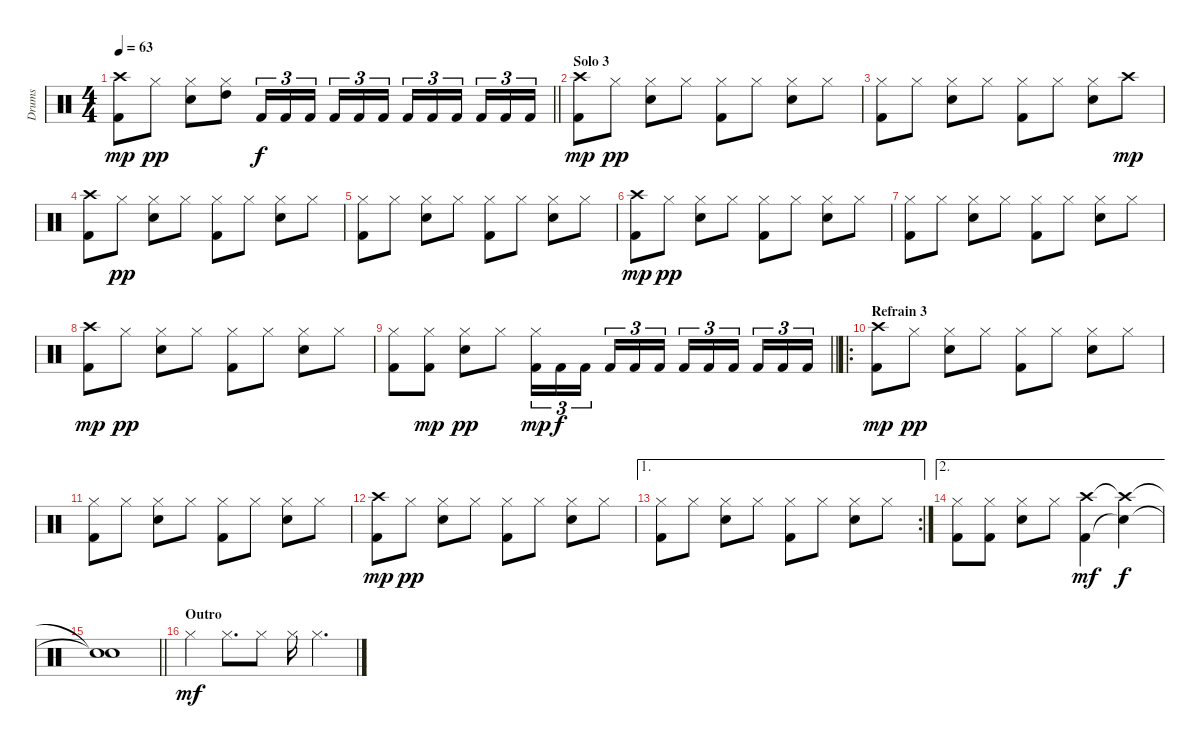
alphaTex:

\track ("Drums" "Drums") {instrument percussion}
\staff {score}
\articulation defaults
\ts (4 4)
\tempo 63
\clef neutral
\barLineRight lightlight
\ks c
("Crash high (hit)" "Kick (hit) 2").8{dy mp} "Hi-Hat (closed)".8{dy pp} ("Hi-Hat (closed)" "Electric Snare (hit)").8 ("Hi-Hat (closed)" "High Tom (hit)").8 "Kick (hit) 2".16{tu (3 2) dy f} "Kick (hit) 2".16{tu (3 2)} "Kick (hit) 2".16{tu (3 2) beam splitsecondary} "Kick (hit) 2".16{tu (3 2)} "Kick (hit) 2".16{tu (3 2)} "Kick (hit) 2".16{tu (3 2)} "Kick (hit) 2".16{tu (3 2)} "Kick (hit) 2".16{tu (3 2)} "Kick (hit) 2".16{tu (3 2) beam splitsecondary} "Kick (hit) 2".16{tu (3 2)} "Kick (hit) 2".16{tu (3 2)} "Kick (hit) 2".16{tu (3 2)} |
\section ("" "Solo 3")
("Crash high (hit)" "Kick (hit) 2").8{dy mp} "Hi-Hat (closed)".8{dy pp} ("Hi-Hat (closed)" "Snare (hit) 2").8 "Hi-Hat (closed)".8 ("Hi-Hat (closed)" "Kick (hit) 2").8 "Hi-Hat (closed)".8 ("Hi-Hat (closed)" "Snare (hit) 2").8 "Hi-Hat (closed)".8 |
("Hi-Hat (closed)" "Kick (hit) 2").8 "Hi-Hat (closed)".8 ("Hi-Hat (closed)" "Snare (hit) 2").8 "Hi-Hat (closed)".8 ("Hi-Hat (closed)" "Kick (hit) 2").8 "Hi-Hat (closed)".8 ("Hi-Hat (closed)" "Snare (hit) 2").8 "Crash high (hit)".8{dy mp} |
("Crash high (hit)" "Kick (hit) 2").8 "Hi-Hat (closed)".8{dy pp} ("Hi-Hat (closed)" "Snare (hit) 2").8 "Hi-Hat (closed)".8 ("Hi-Hat (closed)" "Kick (hit) 2").8 "Hi-Hat (closed)".8 ("Hi-Hat (closed)" "Snare (hit) 2").8 "Hi-Hat (closed)".8 |
("Hi-Hat (closed)" "Kick (hit) 2").8 "Hi-Hat (closed)".8 ("Hi-Hat (closed)" "Snare (hit) 2").8 "Hi-Hat (closed)".8 ("Hi-Hat (closed)" "Kick (hit) 2").8 "Hi-Hat (closed)".8 ("Hi-Hat (closed)" "Snare (hit) 2").8 "Hi-Hat (closed)".8 |
("Crash high (hit)" "Kick (hit) 2").8{dy mp} "Hi-Hat (closed)".8{dy pp} ("Hi-Hat (closed)" "Snare (hit) 2").8 "Hi-Hat (closed)".8 ("Hi-Hat (closed)" "Kick (hit) 2").8 "Hi-Hat (closed)".8 ("Hi-Hat (closed)" "Snare (hit) 2").8 "Hi-Hat (closed)".8 |
("Hi-Hat (closed)" "Kick (hit) 2").8 "Hi-Hat (closed)".8 ("Hi-Hat (closed)" "Snare (hit) 2").8 "Hi-Hat (closed)".8 ("Hi-Hat (closed)" "Kick (hit) 2").8 "Hi-Hat (closed)".8 ("Hi-Hat (closed)" "Snare (hit) 2").8 "Hi-Hat (closed)".8 |
("Crash high (hit)" "Kick (hit) 2").8{dy mp} "Hi-Hat (closed)".8{dy pp} ("Hi-Hat (closed)" "Snare (hit) 2").8 "Hi-Hat (closed)".8 ("Hi-Hat (closed)" "Kick (hit) 2").8 "Hi-Hat (closed)".8 ("Hi-Hat (closed)" "Snare (hit) 2").8 "Hi-Hat (closed)".8 |
\barLineRight lightlight
("Hi-Hat (closed)" "Kick (hit) 2").8 ("Hi-Hat (closed)" "Kick (hit) 2").8{dy mp} ("Hi-Hat (closed)" "Snare (hit) 2").8{dy pp} "Hi-Hat (closed)".8 ("Hi-Hat (closed)" "Kick (hit) 2").16{tu (3 2) dy mp} "Kick (hit) 2".16{tu (3 2) dy f} "Kick (hit) 2".16{tu (3 2) beam splitsecondary} "Kick (hit) 2".16{tu (3 2)} "Kick (hit) 2".16{tu (3 2)} "Kick (hit) 2".16{tu (3 2)} "Kick (hit) 2".16{tu (3 2)} "Kick (hit) 2".16{tu (3 2)} "Kick (hit) 2".16{tu (3 2) beam splitsecondary} "Kick (hit) 2".16{tu (3 2)} "Kick (hit) 2".16{tu (3 2)} "Kick (hit) 2".16{tu (3 2)} |
\ro
\section ("" "Refrain 3")
("Crash high (hit)" "Kick (hit) 2").8{dy mp} "Hi-Hat (closed)".8{dy pp} ("Hi-Hat (closed)" "Snare (hit) 2").8 "Hi-Hat (closed)".8 ("Hi-Hat (closed)" "Kick (hit) 2").8 "Hi-Hat (closed)".8 ("Hi-Hat (closed)" "Snare (hit) 2").8 "Hi-Hat (closed)".8 |
("Hi-Hat (closed)" "Kick (hit) 2").8 "Hi-Hat (closed)".8 ("Hi-Hat (closed)" "Snare (hit) 2").8 "Hi-Hat (closed)".8 ("Hi-Hat (closed)" "Kick (hit) 2").8 "Hi-Hat (closed)".8 ("Hi-Hat (closed)" "Snare (hit) 2").8 "Hi-Hat (closed)".8 |
("Crash high (hit)" "Kick (hit) 2").8{dy mp} "Hi-Hat (closed)".8{dy pp} ("Hi-Hat (closed)" "Snare (hit) 2").8 "Hi-Hat (closed)".8 ("Hi-Hat (closed)" "Kick (hit) 2").8 "Hi-Hat (closed)".8 ("Hi-Hat (closed)" "Snare (hit) 2").8 "Hi-Hat (closed)".8 |
\ae 1
\rc 2
("Hi-Hat (closed)" "Kick (hit) 2").8 "Hi-Hat (closed)".8 ("Hi-Hat (closed)" "Snare (hit) 2").8 "Hi-Hat (closed)".8 ("Hi-Hat (closed)" "Kick (hit) 2").8 "Hi-Hat (closed)".8 ("Hi-Hat (closed)" "Snare (hit) 2").8 "Hi-Hat (closed)".8 |
\ae 2
("Hi-Hat (closed)" "Kick (hit) 2").8 ("Hi-Hat (closed)" "Kick (hit) 2").8 ("Hi-Hat (closed)" "Snare (hit) 2").8 "Hi-Hat (closed)".8 ("Crash high (hit)" "Kick (hit) 2").4{dy mf} ("Crash high (hit)"{t} "Snare (hit) 2"{t}).4{dy f} |
\barLineRight lightlight
("Snare (hit)"{t} "Snare (hit)"{t}).1 |
\section ("" "Outro")
"Hi-Hat (closed)".4{dy mf} "Hi-Hat (closed)".8{d} "Hi-Hat (closed)".8 "Hi-Hat (closed)".16 "Hi-Hat (closed)".4{d}
